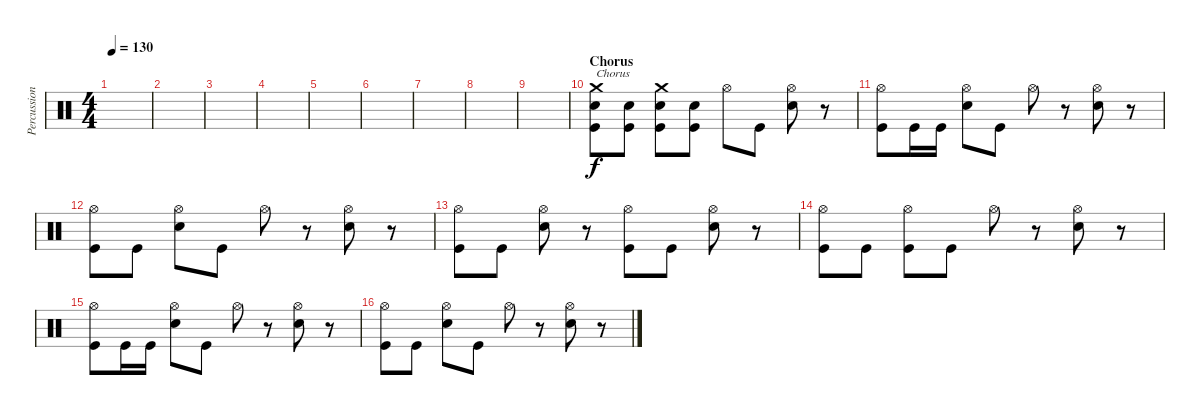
\track ("Percussion" "Percussion") {instrument percussion}
\staff {score}
\articulation defaults
\ts (4 4)
\tempo 130
\clef neutral
\ks c
|
|
|
|
|
|
|
|
|
\section ("" "Chorus")
("Crash medium (hit)" "Snare (hit) 2" "Kick (hit)").8{txt "Chorus"} ("Snare (hit) 2" "Kick (hit)").8 ("Crash medium (hit)" "Snare (hit) 2" "Kick (hit)").8 ("Snare (hit) 2" "Kick (hit)").8 "Hi-Hat (open)".8 "Kick (hit)".8 ("Hi-Hat (open)" "Snare (hit) 2").8 r.8 |
("Hi-Hat (open)" "Kick (hit)").8 "Kick (hit)".16 "Kick (hit)".16 ("Hi-Hat (open)" "Snare (hit) 2").8 "Kick (hit)".8 "Hi-Hat (open)".8 r.8 ("Hi-Hat (open)" "Snare (hit) 2").8 r.8 |
("Hi-Hat (open)" "Kick (hit)").8 "Kick (hit)".8 ("Hi-Hat (open)" "Snare (hit) 2").8 "Kick (hit)".8 "Hi-Hat (open)".8 r.8 ("Hi-Hat (open)" "Snare (hit) 2").8 r.8 |
("Hi-Hat (open)" "Kick (hit)").8 "Kick (hit)".8 ("Hi-Hat (open)" "Snare (hit) 2").8 r.8 ("Hi-Hat (open)" "Kick (hit)").8 "Kick (hit)".8 ("Hi-Hat (open)" "Snare (hit) 2").8 r.8 |
("Hi-Hat (open)" "Kick (hit)").8 "Kick (hit)".8 ("Hi-Hat (open)" "Kick (hit)").8 "Kick (hit)".8 "Hi-Hat (open)".8 r.8 ("Hi-Hat (open)" "Snare (hit) 2").8 r.8 |
("Hi-Hat (open)" "Kick (hit)").8 "Kick (hit)".16 "Kick (hit)".16 ("Hi-Hat (open)" "Snare (hit) 2").8 "Kick (hit)".8 "Hi-Hat (open)".8 r.8 ("Hi-Hat (open)" "Snare (hit) 2").8 r.8 |
("Hi-Hat (open)" "Kick (hit)").8 "Kick (hit)".8 ("Hi-Hat (open)" "Snare (hit) 2").8 "Kick (hit)".8 "Hi-Hat (open)".8 r.8 ("Hi-Hat (open)" "Snare (hit) 2").8 r.8
